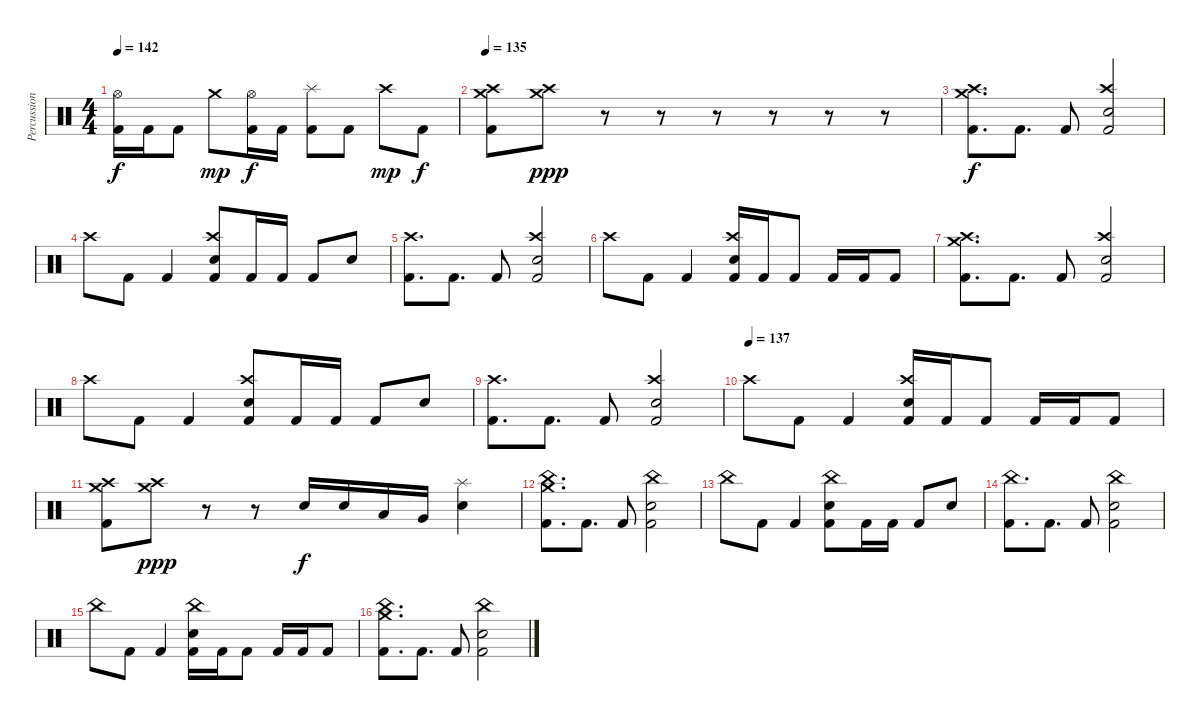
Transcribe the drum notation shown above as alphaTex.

\track ("Percussion" "Percussion") {instrument percussion}
\staff {score}
\articulation defaults
\ts (4 4)
\tempo 142
\clef neutral
\ks c
("Hi-Hat (open)" "Kick (hit) 2").16{dy f} "Kick (hit) 2".16 "Kick (hit) 2".8 "Crash medium (hit)".8{dy mp} ("Hi-Hat (open)" "Kick (hit) 2").16{dy f} "Kick (hit) 2".16 ("Splash (hit)" "Kick (hit) 2").8 "Kick (hit) 2".8 "Crash high (hit)".8{dy mp} "Kick (hit) 2".8{dy f} |
\tempo 135
("Crash medium (hit)" "Crash high (hit)" "Kick (hit) 2").8 ("Crash medium (hit)" "Crash high (hit)").8{dy ppp} r.8 r.8 r.8 r.8 r.8 r.8 |
("Crash medium (hit)" "Crash high (hit)" "Kick (hit) 2").8{d dy f} "Kick (hit) 2".8{d} "Kick (hit) 2".8 ("Crash high (hit)" "Electric Snare (hit)" "Kick (hit) 2").2 |
"Crash high (hit)".8 "Kick (hit) 2".8 "Kick (hit) 2".4 ("Crash high (hit)" "Electric Snare (hit)" "Kick (hit) 2").8 "Kick (hit) 2".16 "Kick (hit) 2".16 "Kick (hit) 2".8 "Electric Snare (hit)".8 |
("Crash high (hit)" "Kick (hit) 2").8{d} "Kick (hit) 2".8{d} "Kick (hit) 2".8 ("Crash high (hit)" "Electric Snare (hit)" "Kick (hit) 2").2 |
"Crash high (hit)".8 "Kick (hit) 2".8 "Kick (hit) 2".4 ("Crash high (hit)" "Electric Snare (hit)" "Kick (hit) 2").16 "Kick (hit) 2".16 "Kick (hit) 2".8 "Kick (hit) 2".16 "Kick (hit) 2".16 "Kick (hit) 2".8 |
("Crash medium (hit)" "Crash high (hit)" "Kick (hit) 2").8{d} "Kick (hit) 2".8{d} "Kick (hit) 2".8 ("Crash high (hit)" "Electric Snare (hit)" "Kick (hit) 2").2 |
"Crash high (hit)".8 "Kick (hit) 2".8 "Kick (hit) 2".4 ("Crash high (hit)" "Electric Snare (hit)" "Kick (hit) 2").8 "Kick (hit) 2".16 "Kick (hit) 2".16 "Kick (hit) 2".8 "Electric Snare (hit)".8 |
("Crash high (hit)" "Kick (hit) 2").8{d} "Kick (hit) 2".8{d} "Kick (hit) 2".8 ("Crash high (hit)" "Electric Snare (hit)" "Kick (hit) 2").2 |
\tempo (137)
"Crash high (hit)".8 "Kick (hit) 2".8 "Kick (hit) 2".4 ("Crash high (hit)" "Electric Snare (hit)" "Kick (hit) 2").16 "Kick (hit) 2".16 "Kick (hit) 2".8 "Kick (hit) 2".16 "Kick (hit) 2".16 "Kick (hit) 2".8 |
("Crash medium (hit)" "Crash high (hit)" "Kick (hit) 2").8 ("Crash medium (hit)" "Crash high (hit)").8{dy ppp} r.8 r.8 "Electric Snare (hit)".16{dy f} "Electric Snare (hit)".16 "Low Tom (hit)".16 "Very Low Tom (hit)".16 ("Splash (hit)" "Electric Snare (hit)").4 |
("Crash medium (hit)" "China (hit)" "Kick (hit) 2").8{d} "Kick (hit) 2".8{d} "Kick (hit) 2".8 ("China (hit)" "Electric Snare (hit)" "Kick (hit) 2").2 |
"China (hit)".8 "Kick (hit) 2".8 "Kick (hit) 2".4 ("China (hit)" "Electric Snare (hit)" "Kick (hit) 2").8 "Kick (hit) 2".16 "Kick (hit) 2".16 "Kick (hit) 2".8 "Electric Snare (hit)".8 |
("China (hit)" "Kick (hit) 2").8{d} "Kick (hit) 2".8{d} "Kick (hit) 2".8 ("China (hit)" "Electric Snare (hit)" "Kick (hit) 2").2 |
"China (hit)".8 "Kick (hit) 2".8 "Kick (hit) 2".4 ("China (hit)" "Electric Snare (hit)" "Kick (hit) 2").16 "Kick (hit) 2".16 "Kick (hit) 2".8 "Kick (hit) 2".16 "Kick (hit) 2".16 "Kick (hit) 2".8 |
("Crash medium (hit)" "China (hit)" "Kick (hit) 2").8{d} "Kick (hit) 2".8{d} "Kick (hit) 2".8 ("China (hit)" "Electric Snare (hit)" "Kick (hit) 2").2
